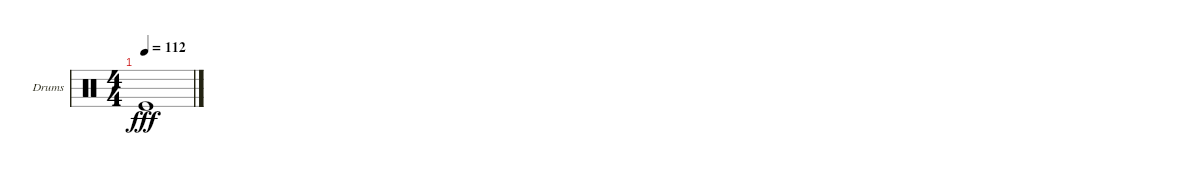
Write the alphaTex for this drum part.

\defaultSystemsLayout 4
\bracketExtendMode groupsimilarinstruments
\firstSystemTrackNameOrientation horizontal
\otherSystemsTrackNameOrientation horizontal
\track ("Helders" "Drums") {instrument percussion}
\staff {score}
\articulation defaults
\ts (4 4)
\tempo 112
\clef neutral
\ks c "Kick (hit)".1{dy fff}
